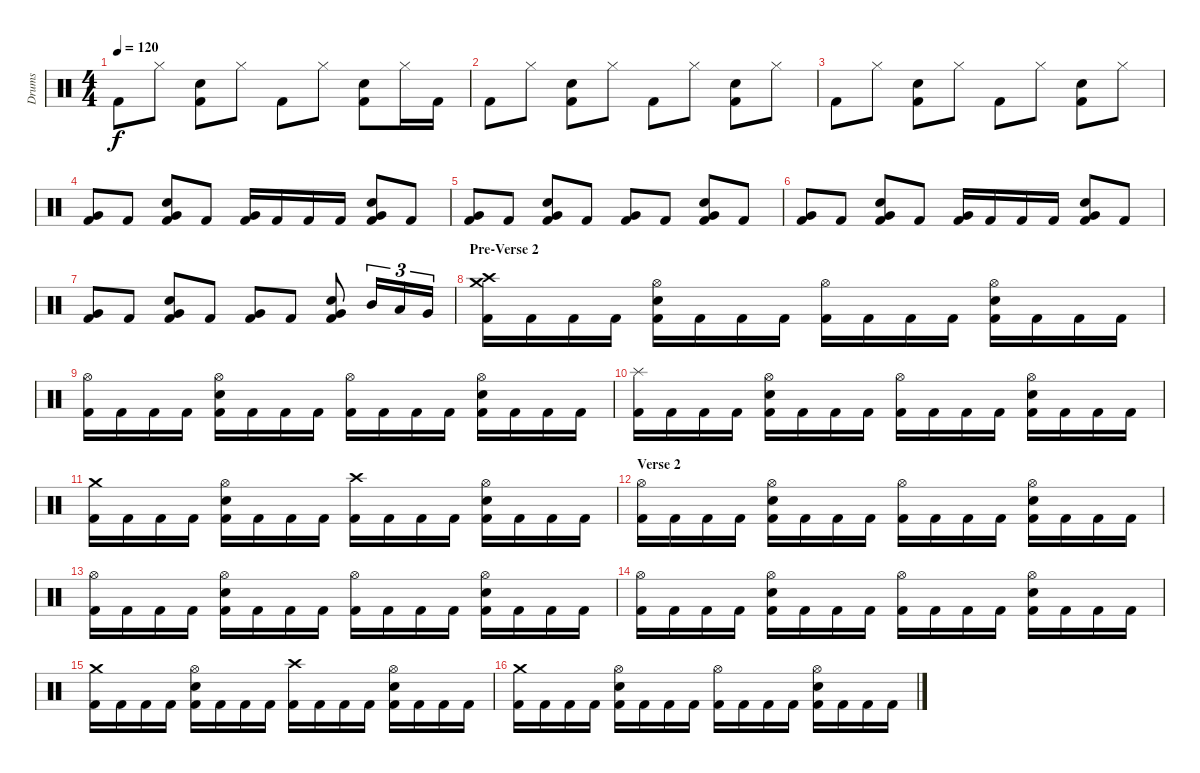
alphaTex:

\track ("Drums" "Drums") {instrument percussion}
\staff {score}
\articulation defaults
\ts (4 4)
\tempo 120
\clef neutral
\ks c "Kick (hit) 2".8{dy f} "Hi-Hat (closed)".8
("Snare (hit) 2" "Kick (hit) 2").8 "Hi-Hat (closed)".8 "Kick (hit) 2".8 "Hi-Hat (closed)".8 ("Snare (hit) 2" "Kick (hit) 2").8 "Hi-Hat (closed)".16 "Kick (hit) 2".16 |
"Kick (hit) 2".8 "Hi-Hat (closed)".8 ("Snare (hit) 2" "Kick (hit) 2").8 "Hi-Hat (closed)".8 "Kick (hit) 2".8 "Hi-Hat (closed)".8 ("Snare (hit) 2" "Kick (hit) 2").8 "Hi-Hat (closed)".8 |
"Kick (hit) 2".8 "Hi-Hat (closed)".8 ("Snare (hit) 2" "Kick (hit) 2").8 "Hi-Hat (closed)".8 "Kick (hit) 2".8 "Hi-Hat (closed)".8 ("Snare (hit) 2" "Kick (hit) 2").8 "Hi-Hat (closed)".8 |
("Very Low Tom (hit)" "Kick (hit) 2").8 "Kick (hit) 2".8 ("Very Low Tom (hit)" "Snare (hit) 2" "Kick (hit) 2").8 "Kick (hit) 2".8 ("Very Low Tom (hit)" "Kick (hit) 2").16 "Kick (hit) 2".16 "Kick (hit) 2".16 "Kick (hit) 2".16 ("Very Low Tom (hit)" "Snare (hit) 2" "Kick (hit) 2").8 "Kick (hit) 2".8 |
("Very Low Tom (hit)" "Kick (hit) 2").8 "Kick (hit) 2".8 ("Very Low Tom (hit)" "Snare (hit) 2" "Kick (hit) 2").8 "Kick (hit) 2".8 ("Very Low Tom (hit)" "Kick (hit) 2").8 "Kick (hit) 2".8 ("Very Low Tom (hit)" "Snare (hit) 2" "Kick (hit) 2").8 "Kick (hit) 2".8 |
("Very Low Tom (hit)" "Kick (hit) 2").8 "Kick (hit) 2".8 ("Very Low Tom (hit)" "Snare (hit) 2" "Kick (hit) 2").8 "Kick (hit) 2".8 ("Very Low Tom (hit)" "Kick (hit) 2").16 "Kick (hit) 2".16 "Kick (hit) 2".16 "Kick (hit) 2".16 ("Very Low Tom (hit)" "Snare (hit) 2" "Kick (hit) 2").8 "Kick (hit) 2".8 |
("Very Low Tom (hit)" "Kick (hit) 2").8 "Kick (hit) 2".8 ("Very Low Tom (hit)" "Snare (hit) 2" "Kick (hit) 2").8 "Kick (hit) 2".8 ("Very Low Tom (hit)" "Kick (hit) 2").8 "Kick (hit) 2".8 ("Very Low Tom (hit)" "Snare (hit) 2" "Kick (hit) 2").8 "Mid Tom (hit)".16{tu (3 2)} "Low Tom (hit)".16{tu (3 2)} "Very Low Tom (hit)".16{tu (3 2)} |
\section ("" "Pre-Verse 2")
("Crash high (hit)" "Crash medium (hit)" "Kick (hit) 2").16 "Kick (hit) 2".16 "Kick (hit) 2".16 "Kick (hit) 2".16 ("Hi-Hat (open)" "Snare (hit) 2" "Kick (hit) 2").16 "Kick (hit) 2".16 "Kick (hit) 2".16 "Kick (hit) 2".16 ("Hi-Hat (open)" "Kick (hit) 2").16 "Kick (hit) 2".16 "Kick (hit) 2".16 "Kick (hit) 2".16 ("Hi-Hat (open)" "Snare (hit) 2" "Kick (hit) 2").16 "Kick (hit) 2".16 "Kick (hit) 2".16 "Kick (hit) 2".16 |
("Hi-Hat (open)" "Kick (hit) 2").16 "Kick (hit) 2".16 "Kick (hit) 2".16 "Kick (hit) 2".16 ("Hi-Hat (open)" "Snare (hit) 2" "Kick (hit) 2").16 "Kick (hit) 2".16 "Kick (hit) 2".16 "Kick (hit) 2".16 ("Hi-Hat (open)" "Kick (hit) 2").16 "Kick (hit) 2".16 "Kick (hit) 2".16 "Kick (hit) 2".16 ("Hi-Hat (open)" "Snare (hit) 2" "Kick (hit) 2").16 "Kick (hit) 2".16 "Kick (hit) 2".16 "Kick (hit) 2".16 |
("Splash (hit)" "Kick (hit) 2").16 "Kick (hit) 2".16 "Kick (hit) 2".16 "Kick (hit) 2".16 ("Hi-Hat (open)" "Snare (hit) 2" "Kick (hit) 2").16 "Kick (hit) 2".16 "Kick (hit) 2".16 "Kick (hit) 2".16 ("Hi-Hat (open)" "Kick (hit) 2").16 "Kick (hit) 2".16 "Kick (hit) 2".16 "Kick (hit) 2".16 ("Hi-Hat (open)" "Snare (hit) 2" "Kick (hit) 2").16 "Kick (hit) 2".16 "Kick (hit) 2".16 "Kick (hit) 2".16 |
("Crash medium (hit)" "Kick (hit) 2").16 "Kick (hit) 2".16 "Kick (hit) 2".16 "Kick (hit) 2".16 ("Hi-Hat (open)" "Snare (hit) 2" "Kick (hit) 2").16 "Kick (hit) 2".16 "Kick (hit) 2".16 "Kick (hit) 2".16 ("Crash high (hit)" "Kick (hit) 2").16 "Kick (hit) 2".16 "Kick (hit) 2".16 "Kick (hit) 2".16 ("Hi-Hat (open)" "Snare (hit) 2" "Kick (hit) 2").16 "Kick (hit) 2".16 "Kick (hit) 2".16 "Kick (hit) 2".16 |
\section ("" "Verse 2")
("Hi-Hat (open)" "Kick (hit) 2").16 "Kick (hit) 2".16 "Kick (hit) 2".16 "Kick (hit) 2".16 ("Hi-Hat (open)" "Snare (hit) 2" "Kick (hit) 2").16 "Kick (hit) 2".16 "Kick (hit) 2".16 "Kick (hit) 2".16 ("Hi-Hat (open)" "Kick (hit) 2").16 "Kick (hit) 2".16 "Kick (hit) 2".16 "Kick (hit) 2".16 ("Hi-Hat (open)" "Snare (hit) 2" "Kick (hit) 2").16 "Kick (hit) 2".16 "Kick (hit) 2".16 "Kick (hit) 2".16 |
("Hi-Hat (open)" "Kick (hit) 2").16 "Kick (hit) 2".16 "Kick (hit) 2".16 "Kick (hit) 2".16 ("Hi-Hat (open)" "Snare (hit) 2" "Kick (hit) 2").16 "Kick (hit) 2".16 "Kick (hit) 2".16 "Kick (hit) 2".16 ("Hi-Hat (open)" "Kick (hit) 2").16 "Kick (hit) 2".16 "Kick (hit) 2".16 "Kick (hit) 2".16 ("Hi-Hat (open)" "Snare (hit) 2" "Kick (hit) 2").16 "Kick (hit) 2".16 "Kick (hit) 2".16 "Kick (hit) 2".16 |
("Hi-Hat (open)" "Kick (hit) 2").16 "Kick (hit) 2".16 "Kick (hit) 2".16 "Kick (hit) 2".16 ("Hi-Hat (open)" "Snare (hit) 2" "Kick (hit) 2").16 "Kick (hit) 2".16 "Kick (hit) 2".16 "Kick (hit) 2".16 ("Hi-Hat (open)" "Kick (hit) 2").16 "Kick (hit) 2".16 "Kick (hit) 2".16 "Kick (hit) 2".16 ("Hi-Hat (open)" "Snare (hit) 2" "Kick (hit) 2").16 "Kick (hit) 2".16 "Kick (hit) 2".16 "Kick (hit) 2".16 |
("Crash medium (hit)" "Kick (hit) 2").16 "Kick (hit) 2".16 "Kick (hit) 2".16 "Kick (hit) 2".16 ("Hi-Hat (open)" "Snare (hit) 2" "Kick (hit) 2").16 "Kick (hit) 2".16 "Kick (hit) 2".16 "Kick (hit) 2".16 ("Crash high (hit)" "Kick (hit) 2").16 "Kick (hit) 2".16 "Kick (hit) 2".16 "Kick (hit) 2".16 ("Hi-Hat (open)" "Snare (hit) 2" "Kick (hit) 2").16 "Kick (hit) 2".16 "Kick (hit) 2".16 "Kick (hit) 2".16 |
("Crash medium (hit)" "Kick (hit) 2").16 "Kick (hit) 2".16 "Kick (hit) 2".16 "Kick (hit) 2".16 ("Hi-Hat (open)" "Snare (hit) 2" "Kick (hit) 2").16 "Kick (hit) 2".16 "Kick (hit) 2".16 "Kick (hit) 2".16 ("Hi-Hat (open)" "Kick (hit) 2").16 "Kick (hit) 2".16 "Kick (hit) 2".16 "Kick (hit) 2".16 ("Hi-Hat (open)" "Snare (hit) 2" "Kick (hit) 2").16 "Kick (hit) 2".16 "Kick (hit) 2".16 "Kick (hit) 2".16
